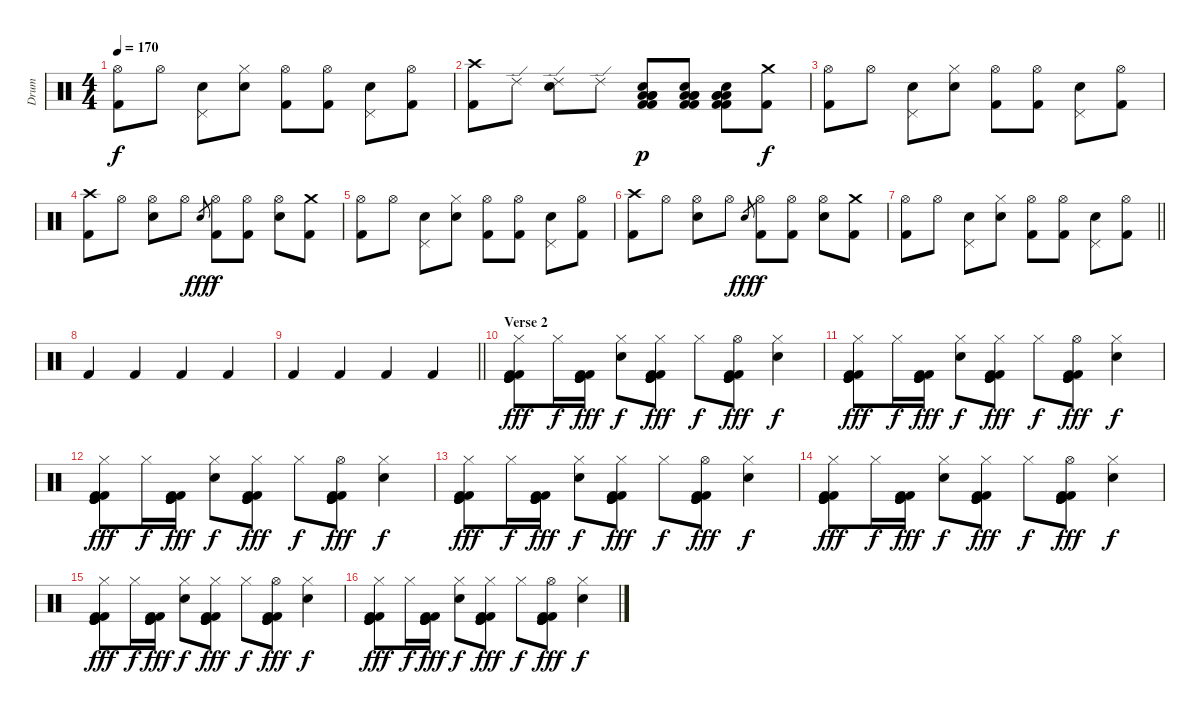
\track ("Drum" "Drum") {instrument percussion}
\staff {score}
\articulation defaults
\ts (4 4)
\tempo 170
\clef neutral
\ks c
("Hi-Hat (open)" "Kick (hit) 2").8{dy f} "Hi-Hat (open)".8 ("Pedal Hi-Hat (hit)" "Electric Snare (hit)").8 ("Hi-Hat (closed)" "Electric Snare (hit)").8 ("Hi-Hat (open)" "Kick (hit) 2").8 ("Hi-Hat (open)" "Kick (hit) 2").8 ("Pedal Hi-Hat (hit)" "Electric Snare (hit)").8 ("Hi-Hat (open)" "Kick (hit) 2").8 |
("Crash high (hit)" "Kick (hit) 2").8 "Ride (edge) 2".8 ("Ride (edge) 2" "Electric Snare (hit)").8 "Ride (edge) 2".8 ("Low Tom (hit)" "Low Floor Tom (hit)" "Low Floor Tom (hit)" "Kick (hit) 2" "Snare (hit) 2" "Kick (hit) 2").8{dy p} ("Low Tom (hit)" "Low Floor Tom (hit)" "Low Floor Tom (hit)" "Kick (hit) 2" "Snare (hit) 2" "Kick (hit) 2").8 ("Low Tom (hit)" "Low Floor Tom (hit)" "Low Floor Tom (hit)" "Kick (hit) 2" "Snare (hit) 2" "Kick (hit) 2").8 ("Crash medium (hit)" "Kick (hit) 2").8{dy f} |
("Hi-Hat (open)" "Kick (hit) 2").8 "Hi-Hat (open)".8 ("Pedal Hi-Hat (hit)" "Electric Snare (hit)").8 ("Hi-Hat (closed)" "Electric Snare (hit)").8 ("Hi-Hat (open)" "Kick (hit) 2").8 ("Hi-Hat (open)" "Kick (hit) 2").8 ("Pedal Hi-Hat (hit)" "Electric Snare (hit)").8 ("Hi-Hat (open)" "Kick (hit) 2").8 |
("Crash high (hit)" "Kick (hit) 2").8 "Hi-Hat (open)".8 ("Hi-Hat (open)" "Electric Snare (hit)").8 "Hi-Hat (open)".8 "Electric Snare (hit)".8{gr dy fff} ("Hi-Hat (open)" "Kick (hit) 2").8{dy f} ("Hi-Hat (open)" "Kick (hit) 2").8 ("Hi-Hat (open)" "Electric Snare (hit)").8 ("Crash medium (hit)" "Kick (hit) 2").8 |
("Hi-Hat (open)" "Kick (hit) 2").8 "Hi-Hat (open)".8 ("Pedal Hi-Hat (hit)" "Electric Snare (hit)").8 ("Hi-Hat (closed)" "Electric Snare (hit)").8 ("Hi-Hat (open)" "Kick (hit) 2").8 ("Hi-Hat (open)" "Kick (hit) 2").8 ("Pedal Hi-Hat (hit)" "Electric Snare (hit)").8 ("Hi-Hat (open)" "Kick (hit) 2").8 |
("Crash high (hit)" "Kick (hit) 2").8 "Hi-Hat (open)".8 ("Hi-Hat (open)" "Electric Snare (hit)").8 "Hi-Hat (open)".8 "Electric Snare (hit)".8{gr dy fff} ("Hi-Hat (open)" "Kick (hit) 2").8{dy f} ("Hi-Hat (open)" "Kick (hit) 2").8 ("Hi-Hat (open)" "Electric Snare (hit)").8 ("Crash medium (hit)" "Kick (hit) 2").8 |
\barLineRight lightlight
("Hi-Hat (open)" "Kick (hit) 2").8 "Hi-Hat (open)".8 ("Pedal Hi-Hat (hit)" "Electric Snare (hit)").8 ("Hi-Hat (closed)" "Electric Snare (hit)").8 ("Hi-Hat (open)" "Kick (hit) 2").8 ("Hi-Hat (open)" "Kick (hit) 2").8 ("Pedal Hi-Hat (hit)" "Electric Snare (hit)").8 ("Hi-Hat (open)" "Kick (hit) 2").8 |
"Kick (hit) 2".4 "Kick (hit) 2".4 "Kick (hit) 2".4 "Kick (hit) 2".4 |
\barLineRight lightlight "Kick (hit) 2".4 "Kick (hit) 2".4 "Kick (hit) 2".4 "Kick (hit) 2".4
|
\section ("" "Verse 2")
("Hi-Hat (closed)" "Kick (hit)" "Kick (hit)" "Kick (hit)" "Kick (hit) 2" "Kick (hit) 2").8{dy fff} "Hi-Hat (closed)".16{dy f} ("Kick (hit)" "Kick (hit)" "Kick (hit)" "Kick (hit) 2" "Kick (hit) 2").16{dy fff} ("Hi-Hat (closed)" "Electric Snare (hit)").8{dy f} ("Hi-Hat (closed)" "Kick (hit)" "Kick (hit)" "Kick (hit)" "Kick (hit) 2" "Kick (hit) 2").8{dy fff} "Hi-Hat (closed)".8{dy f} ("Hi-Hat (open)" "Kick (hit)" "Kick (hit)" "Kick (hit)" "Kick (hit) 2" "Kick (hit) 2").8{dy fff} ("Hi-Hat (closed)" "Electric Snare (hit)").4{dy f} |
("Hi-Hat (closed)" "Kick (hit)" "Kick (hit)" "Kick (hit)" "Kick (hit) 2" "Kick (hit) 2").8{dy fff} "Hi-Hat (closed)".16{dy f} ("Kick (hit)" "Kick (hit)" "Kick (hit)" "Kick (hit) 2" "Kick (hit) 2").16{dy fff} ("Hi-Hat (closed)" "Electric Snare (hit)").8{dy f} ("Hi-Hat (closed)" "Kick (hit)" "Kick (hit)" "Kick (hit)" "Kick (hit) 2" "Kick (hit) 2").8{dy fff} "Hi-Hat (closed)".8{dy f} ("Hi-Hat (open)" "Kick (hit)" "Kick (hit)" "Kick (hit)" "Kick (hit) 2" "Kick (hit) 2").8{dy fff} ("Hi-Hat (closed)" "Electric Snare (hit)").4{dy f} |
("Hi-Hat (closed)" "Kick (hit)" "Kick (hit)" "Kick (hit)" "Kick (hit) 2" "Kick (hit) 2").8{dy fff} "Hi-Hat (closed)".16{dy f} ("Kick (hit)" "Kick (hit)" "Kick (hit)" "Kick (hit) 2" "Kick (hit) 2").16{dy fff} ("Hi-Hat (closed)" "Electric Snare (hit)").8{dy f} ("Hi-Hat (closed)" "Kick (hit)" "Kick (hit)" "Kick (hit)" "Kick (hit) 2" "Kick (hit) 2").8{dy fff} "Hi-Hat (closed)".8{dy f} ("Hi-Hat (open)" "Kick (hit)" "Kick (hit)" "Kick (hit)" "Kick (hit) 2" "Kick (hit) 2").8{dy fff} ("Hi-Hat (closed)" "Electric Snare (hit)").4{dy f} |
("Hi-Hat (closed)" "Kick (hit)" "Kick (hit)" "Kick (hit)" "Kick (hit) 2" "Kick (hit) 2").8{dy fff} "Hi-Hat (closed)".16{dy f} ("Kick (hit)" "Kick (hit)" "Kick (hit)" "Kick (hit) 2" "Kick (hit) 2").16{dy fff} ("Hi-Hat (closed)" "Electric Snare (hit)").8{dy f} ("Hi-Hat (closed)" "Kick (hit)" "Kick (hit)" "Kick (hit)" "Kick (hit) 2" "Kick (hit) 2").8{dy fff} "Hi-Hat (closed)".8{dy f} ("Hi-Hat (open)" "Kick (hit)" "Kick (hit)" "Kick (hit)" "Kick (hit) 2" "Kick (hit) 2").8{dy fff} ("Hi-Hat (closed)" "Electric Snare (hit)").4{dy f} |
("Hi-Hat (closed)" "Kick (hit)" "Kick (hit)" "Kick (hit)" "Kick (hit) 2" "Kick (hit) 2").8{dy fff} "Hi-Hat (closed)".16{dy f} ("Kick (hit)" "Kick (hit)" "Kick (hit)" "Kick (hit) 2" "Kick (hit) 2").16{dy fff} ("Hi-Hat (closed)" "Electric Snare (hit)").8{dy f} ("Hi-Hat (closed)" "Kick (hit)" "Kick (hit)" "Kick (hit)" "Kick (hit) 2" "Kick (hit) 2").8{dy fff} "Hi-Hat (closed)".8{dy f} ("Hi-Hat (open)" "Kick (hit)" "Kick (hit)" "Kick (hit)" "Kick (hit) 2" "Kick (hit) 2").8{dy fff} ("Hi-Hat (closed)" "Electric Snare (hit)").4{dy f} |
("Hi-Hat (closed)" "Kick (hit)" "Kick (hit)" "Kick (hit)" "Kick (hit) 2" "Kick (hit) 2").8{dy fff} "Hi-Hat (closed)".16{dy f} ("Kick (hit)" "Kick (hit)" "Kick (hit)" "Kick (hit) 2" "Kick (hit) 2").16{dy fff} ("Hi-Hat (closed)" "Electric Snare (hit)").8{dy f} ("Hi-Hat (closed)" "Kick (hit)" "Kick (hit)" "Kick (hit)" "Kick (hit) 2" "Kick (hit) 2").8{dy fff} "Hi-Hat (closed)".8{dy f} ("Hi-Hat (open)" "Kick (hit)" "Kick (hit)" "Kick (hit)" "Kick (hit) 2" "Kick (hit) 2").8{dy fff} ("Hi-Hat (closed)" "Electric Snare (hit)").4{dy f} |
("Hi-Hat (closed)" "Kick (hit)" "Kick (hit)" "Kick (hit)" "Kick (hit) 2" "Kick (hit) 2").8{dy fff} "Hi-Hat (closed)".16{dy f} ("Kick (hit)" "Kick (hit)" "Kick (hit)" "Kick (hit) 2" "Kick (hit) 2").16{dy fff} ("Hi-Hat (closed)" "Electric Snare (hit)").8{dy f} ("Hi-Hat (closed)" "Kick (hit)" "Kick (hit)" "Kick (hit)" "Kick (hit) 2" "Kick (hit) 2").8{dy fff} "Hi-Hat (closed)".8{dy f} ("Hi-Hat (open)" "Kick (hit)" "Kick (hit)" "Kick (hit)" "Kick (hit) 2" "Kick (hit) 2").8{dy fff} ("Hi-Hat (closed)" "Electric Snare (hit)").4{dy f}
